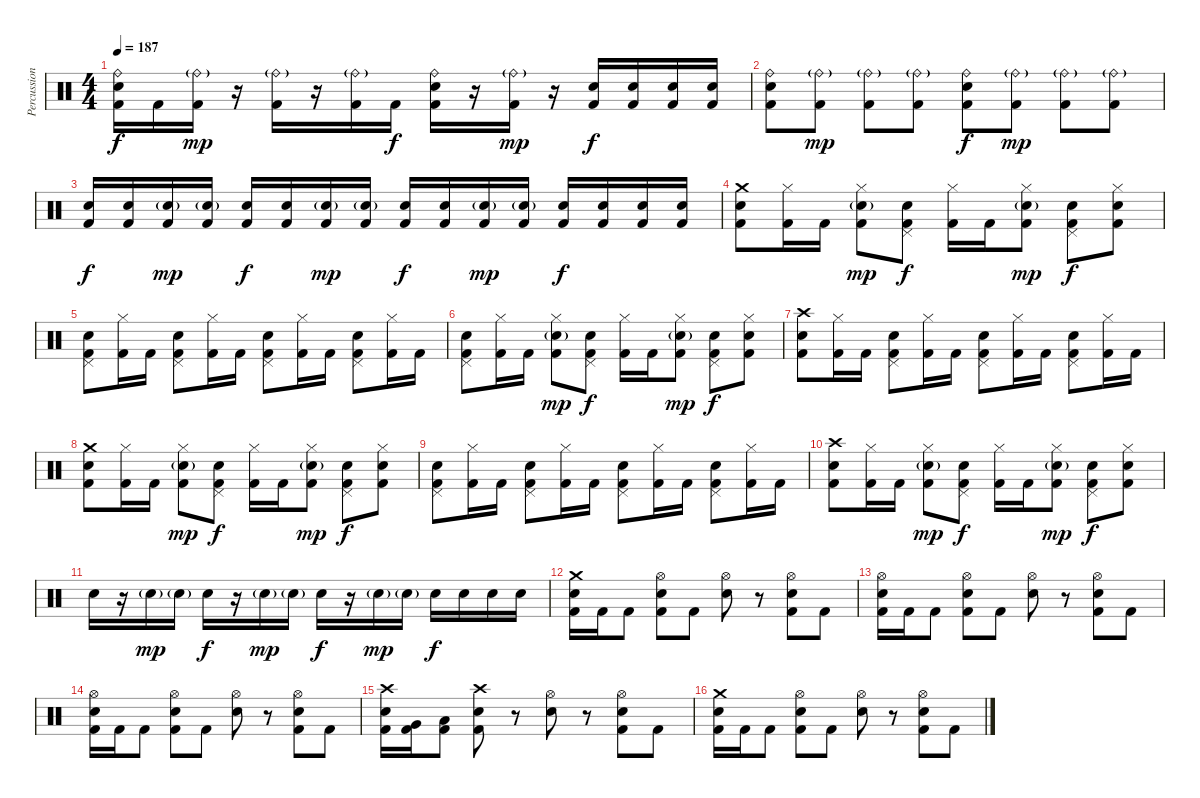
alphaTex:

\track ("Percussion" "Percussion") {instrument percussion}
\staff {score}
\articulation defaults
\ts (4 4)
\tempo 187
\clef neutral
\ks c
("Ride (bell)" "Electric Snare (hit)" "Kick (hit) 2").16{dy f} "Kick (hit) 2".16 ("Ride (bell)"{g} "Kick (hit) 2").16{dy mp} r.16 ("Ride (bell)"{g} "Kick (hit) 2").16 r.16 ("Ride (bell)"{g} "Kick (hit) 2").16 "Kick (hit) 2".16{dy f} ("Ride (bell)" "Electric Snare (hit)" "Kick (hit) 2").16 r.16 ("Ride (bell)"{g} "Kick (hit) 2").16{dy mp} r.16 ("Electric Snare (hit)" "Kick (hit) 2").16{dy f} ("Electric Snare (hit)" "Kick (hit) 2").16 ("Electric Snare (hit)" "Kick (hit) 2").16 ("Electric Snare (hit)" "Kick (hit) 2").16 |
("Ride (bell)" "Electric Snare (hit)" "Kick (hit) 2").8 ("Ride (bell)"{g} "Kick (hit) 2").8{dy mp} ("Ride (bell)"{g} "Kick (hit) 2").8 ("Ride (bell)"{g} "Kick (hit) 2").8 ("Ride (bell)" "Electric Snare (hit)" "Kick (hit) 2").8{dy f} ("Ride (bell)"{g} "Kick (hit) 2").8{dy mp} ("Ride (bell)"{g} "Kick (hit) 2").8 ("Ride (bell)"{g} "Kick (hit) 2").8 |
("Electric Snare (hit)" "Kick (hit) 2").16{dy f} ("Electric Snare (hit)" "Kick (hit) 2").16 ("Electric Snare (hit)"{g} "Kick (hit) 2").16{dy mp} ("Electric Snare (hit)"{g} "Kick (hit) 2").16 ("Electric Snare (hit)" "Kick (hit) 2").16{dy f} ("Electric Snare (hit)" "Kick (hit) 2").16 ("Electric Snare (hit)"{g} "Kick (hit) 2").16{dy mp} ("Electric Snare (hit)"{g} "Kick (hit) 2").16 ("Electric Snare (hit)" "Kick (hit) 2").16{dy f} ("Electric Snare (hit)" "Kick (hit) 2").16 ("Electric Snare (hit)"{g} "Kick (hit) 2").16{dy mp} ("Electric Snare (hit)"{g} "Kick (hit) 2").16 ("Electric Snare (hit)" "Kick (hit) 2").16{dy f} ("Electric Snare (hit)" "Kick (hit) 2").16 ("Electric Snare (hit)" "Kick (hit) 2").16 ("Electric Snare (hit)" "Kick (hit) 2").16 |
("Crash medium (hit)" "Electric Snare (hit)" "Kick (hit) 2").8 ("Hi-Hat (closed)" "Kick (hit) 2").16 "Kick (hit) 2".16 ("Hi-Hat (closed)" "Electric Snare (hit)"{g} "Kick (hit) 2").8{dy mp} ("Pedal Hi-Hat (hit)" "Electric Snare (hit)" "Kick (hit) 2").8{dy f} ("Hi-Hat (closed)" "Kick (hit) 2").16 "Kick (hit) 2".16 ("Hi-Hat (closed)" "Electric Snare (hit)"{g} "Kick (hit) 2").8{dy mp} ("Pedal Hi-Hat (hit)" "Electric Snare (hit)" "Kick (hit) 2").8{dy f} ("Hi-Hat (closed)" "Electric Snare (hit)" "Kick (hit) 2").8 |
("Pedal Hi-Hat (hit)" "Electric Snare (hit)" "Kick (hit) 2").8 ("Hi-Hat (closed)" "Kick (hit) 2").16 "Kick (hit) 2".16 ("Pedal Hi-Hat (hit)" "Electric Snare (hit)" "Kick (hit) 2").8 ("Hi-Hat (closed)" "Kick (hit) 2").16 "Kick (hit) 2".16 ("Pedal Hi-Hat (hit)" "Electric Snare (hit)" "Kick (hit) 2").8 ("Hi-Hat (closed)" "Kick (hit) 2").16 "Kick (hit) 2".16 ("Pedal Hi-Hat (hit)" "Electric Snare (hit)" "Kick (hit) 2").8 ("Hi-Hat (closed)" "Kick (hit) 2").16 "Kick (hit) 2".16 |
("Pedal Hi-Hat (hit)" "Electric Snare (hit)" "Kick (hit) 2").8 ("Hi-Hat (closed)" "Kick (hit) 2").16 "Kick (hit) 2".16 ("Hi-Hat (closed)" "Electric Snare (hit)"{g} "Kick (hit) 2").8{dy mp} ("Pedal Hi-Hat (hit)" "Electric Snare (hit)" "Kick (hit) 2").8{dy f} ("Hi-Hat (closed)" "Kick (hit) 2").16 "Kick (hit) 2".16 ("Hi-Hat (closed)" "Electric Snare (hit)"{g} "Kick (hit) 2").8{dy mp} ("Pedal Hi-Hat (hit)" "Electric Snare (hit)" "Kick (hit) 2").8{dy f} ("Hi-Hat (closed)" "Electric Snare (hit)" "Kick (hit) 2").8 |
("Crash high (hit)" "Electric Snare (hit)" "Kick (hit) 2").8 ("Hi-Hat (closed)" "Kick (hit) 2").16 "Kick (hit) 2".16 ("Pedal Hi-Hat (hit)" "Electric Snare (hit)" "Kick (hit) 2").8 ("Hi-Hat (closed)" "Kick (hit) 2").16 "Kick (hit) 2".16 ("Pedal Hi-Hat (hit)" "Electric Snare (hit)" "Kick (hit) 2").8 ("Hi-Hat (closed)" "Kick (hit) 2").16 "Kick (hit) 2".16 ("Pedal Hi-Hat (hit)" "Electric Snare (hit)" "Kick (hit) 2").8 ("Hi-Hat (closed)" "Kick (hit) 2").16 "Kick (hit) 2".16 |
("Crash medium (hit)" "Electric Snare (hit)" "Kick (hit) 2").8 ("Hi-Hat (closed)" "Kick (hit) 2").16 "Kick (hit) 2".16 ("Hi-Hat (closed)" "Electric Snare (hit)"{g} "Kick (hit) 2").8{dy mp} ("Pedal Hi-Hat (hit)" "Electric Snare (hit)" "Kick (hit) 2").8{dy f} ("Hi-Hat (closed)" "Kick (hit) 2").16 "Kick (hit) 2".16 ("Hi-Hat (closed)" "Electric Snare (hit)"{g} "Kick (hit) 2").8{dy mp} ("Pedal Hi-Hat (hit)" "Electric Snare (hit)" "Kick (hit) 2").8{dy f} ("Hi-Hat (closed)" "Electric Snare (hit)" "Kick (hit) 2").8 |
("Pedal Hi-Hat (hit)" "Electric Snare (hit)" "Kick (hit) 2").8 ("Hi-Hat (closed)" "Kick (hit) 2").16 "Kick (hit) 2".16 ("Pedal Hi-Hat (hit)" "Electric Snare (hit)" "Kick (hit) 2").8 ("Hi-Hat (closed)" "Kick (hit) 2").16 "Kick (hit) 2".16 ("Pedal Hi-Hat (hit)" "Electric Snare (hit)" "Kick (hit) 2").8 ("Hi-Hat (closed)" "Kick (hit) 2").16 "Kick (hit) 2".16 ("Pedal Hi-Hat (hit)" "Electric Snare (hit)" "Kick (hit) 2").8 ("Hi-Hat (closed)" "Kick (hit) 2").16 "Kick (hit) 2".16 |
("Crash high (hit)" "Electric Snare (hit)" "Kick (hit) 2").8 ("Hi-Hat (closed)" "Kick (hit) 2").16 "Kick (hit) 2".16 ("Hi-Hat (closed)" "Electric Snare (hit)"{g} "Kick (hit) 2").8{dy mp} ("Pedal Hi-Hat (hit)" "Electric Snare (hit)" "Kick (hit) 2").8{dy f} ("Hi-Hat (closed)" "Kick (hit) 2").16 "Kick (hit) 2".16 ("Hi-Hat (closed)" "Electric Snare (hit)"{g} "Kick (hit) 2").8{dy mp} ("Pedal Hi-Hat (hit)" "Electric Snare (hit)" "Kick (hit) 2").8{dy f} ("Hi-Hat (closed)" "Electric Snare (hit)" "Kick (hit) 2").8 |
"Electric Snare (hit)".16{volume 10} r.16{volume 12} "Electric Snare (hit)"{g}.16{dy mp} "Electric Snare (hit)"{g}.16 "Electric Snare (hit)".16{dy f} r.16 "Electric Snare (hit)"{g}.16{dy mp} "Electric Snare (hit)"{g}.16 "Electric Snare (hit)".16{dy f} r.16 "Electric Snare (hit)"{g}.16{dy mp} "Electric Snare (hit)"{g}.16 "Electric Snare (hit)".16{dy f} "Electric Snare (hit)".16 "Electric Snare (hit)".16 "Electric Snare (hit)".16 |
("Crash medium (hit)" "Electric Snare (hit)" "Kick (hit) 2").16{volume 10} "Kick (hit) 2".16 "Kick (hit) 2".8 ("Hi-Hat (open)" "Electric Snare (hit)" "Kick (hit) 2").8 "Kick (hit) 2".8 ("Hi-Hat (open)" "Electric Snare (hit)").8 r.8 ("Hi-Hat (open)" "Electric Snare (hit)" "Kick (hit) 2").8 "Kick (hit) 2".8 |
("Hi-Hat (open)" "Electric Snare (hit)" "Kick (hit) 2").16 "Kick (hit) 2".16 "Kick (hit) 2".8 ("Hi-Hat (open)" "Electric Snare (hit)" "Kick (hit) 2").8 "Kick (hit) 2".8 ("Hi-Hat (open)" "Electric Snare (hit)").8 r.8 ("Hi-Hat (open)" "Electric Snare (hit)" "Kick (hit) 2").8 "Kick (hit) 2".8 |
("Hi-Hat (open)" "Electric Snare (hit)" "Kick (hit) 2").16 "Kick (hit) 2".16 "Kick (hit) 2".8 ("Hi-Hat (open)" "Electric Snare (hit)" "Kick (hit) 2").8 "Kick (hit) 2".8 ("Hi-Hat (open)" "Electric Snare (hit)").8 r.8 ("Hi-Hat (open)" "Electric Snare (hit)" "Kick (hit) 2").8 "Kick (hit) 2".8 |
("Crash high (hit)" "Electric Snare (hit)" "Kick (hit) 2").16 ("Very Low Tom (hit)" "Kick (hit) 2").16 ("Low Floor Tom (hit)" "Kick (hit) 2").8 ("Crash high (hit)" "Electric Snare (hit)" "Kick (hit) 2").8 r.8 ("Hi-Hat (open)" "Electric Snare (hit)").8 r.8 ("Hi-Hat (open)" "Electric Snare (hit)" "Kick (hit) 2").8 "Kick (hit) 2".8 |
("Crash medium (hit)" "Electric Snare (hit)" "Kick (hit) 2").16 "Kick (hit) 2".16 "Kick (hit) 2".8 ("Hi-Hat (open)" "Electric Snare (hit)" "Kick (hit) 2").8 "Kick (hit) 2".8 ("Hi-Hat (open)" "Electric Snare (hit)").8 r.8 ("Hi-Hat (open)" "Electric Snare (hit)" "Kick (hit) 2").8 "Kick (hit) 2".8
